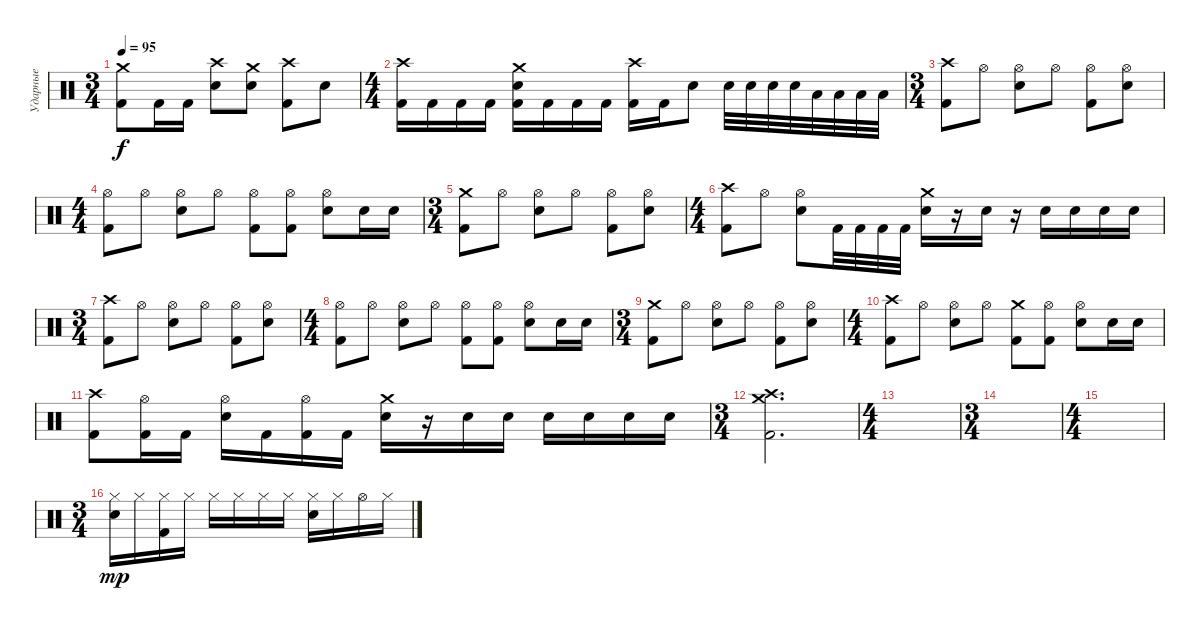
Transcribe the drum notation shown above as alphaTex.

\track ("Ударные" "Ударные") {instrument percussion}
\staff {score}
\articulation defaults
\ts (3 4)
\tempo 95
\clef neutral
\ks c
("Crash medium (hit)" "Kick (hit) 2").8{dy f} "Kick (hit) 2".16 "Kick (hit) 2".16 ("Crash high (hit)" "Snare (hit) 2").8 ("Crash medium (hit)" "Snare (hit) 2").8 ("Crash high (hit)" "Kick (hit) 2").8 "Snare (hit) 2".8 |
\ts (4 4)
("Crash high (hit)" "Kick (hit) 2").16 "Kick (hit) 2".16 "Kick (hit) 2".16 "Kick (hit) 2".16 ("Crash medium (hit)" "Snare (hit) 2" "Kick (hit) 2").16 "Kick (hit) 2".16 "Kick (hit) 2".16 "Kick (hit) 2".16 ("Crash high (hit)" "Kick (hit) 2").16 "Kick (hit) 2".16 "Snare (hit) 2".8 "Snare (hit) 2".32 "Snare (hit) 2".32 "Snare (hit) 2".32 "Snare (hit) 2".32 "Low Tom (hit)".32 "Low Tom (hit)".32 "Low Tom (hit)".32 "Low Tom (hit)".32 |
\ts (3 4)
("Crash high (hit)" "Kick (hit) 2").8 "Hi-Hat (open)".8 ("Hi-Hat (open)" "Snare (hit) 2").8 "Hi-Hat (open)".8 ("Hi-Hat (open)" "Kick (hit) 2").8 ("Hi-Hat (open)" "Snare (hit) 2").8 |
\ts (4 4)
("Hi-Hat (open)" "Kick (hit) 2").8 "Hi-Hat (open)".8 ("Hi-Hat (open)" "Snare (hit) 2").8 "Hi-Hat (open)".8 ("Hi-Hat (open)" "Kick (hit) 2").8 ("Hi-Hat (open)" "Kick (hit) 2").8 ("Hi-Hat (open)" "Snare (hit) 2").8 "Snare (hit) 2".16 "Snare (hit) 2".16 |
\ts (3 4)
("Crash medium (hit)" "Kick (hit) 2").8 "Hi-Hat (open)".8 ("Hi-Hat (open)" "Snare (hit) 2").8 "Hi-Hat (open)".8 ("Hi-Hat (open)" "Kick (hit) 2").8 ("Hi-Hat (open)" "Snare (hit) 2").8 |
\ts (4 4)
("Crash high (hit)" "Kick (hit) 2").8 "Hi-Hat (open)".8 ("Hi-Hat (open)" "Snare (hit) 2").8 "Kick (hit) 2".32 "Kick (hit) 2".32 "Kick (hit) 2".32 "Kick (hit) 2".32 ("Crash medium (hit)" "Snare (hit) 2").16 r.16 "Snare (hit) 2".16 r.16 "Snare (hit) 2".16 "Snare (hit) 2".16 "Snare (hit) 2".16 "Snare (hit) 2".16 |
\ts (3 4)
("Crash high (hit)" "Kick (hit) 2").8 "Hi-Hat (open)".8 ("Hi-Hat (open)" "Snare (hit) 2").8 "Hi-Hat (open)".8 ("Hi-Hat (open)" "Kick (hit) 2").8 ("Hi-Hat (open)" "Snare (hit) 2").8 |
\ts (4 4)
("Hi-Hat (open)" "Kick (hit) 2").8 "Hi-Hat (open)".8 ("Hi-Hat (open)" "Snare (hit) 2").8 "Hi-Hat (open)".8 ("Hi-Hat (open)" "Kick (hit) 2").8 ("Hi-Hat (open)" "Kick (hit) 2").8 ("Hi-Hat (open)" "Snare (hit) 2").8 "Snare (hit) 2".16 "Snare (hit) 2".16 |
\ts (3 4)
("Crash medium (hit)" "Kick (hit) 2").8 "Hi-Hat (open)".8 ("Hi-Hat (open)" "Snare (hit) 2").8 "Hi-Hat (open)".8 ("Hi-Hat (open)" "Kick (hit) 2").8 ("Hi-Hat (open)" "Snare (hit) 2").8 |
\ts (4 4)
("Crash high (hit)" "Kick (hit) 2").8 "Hi-Hat (open)".8 ("Hi-Hat (open)" "Snare (hit) 2").8 "Hi-Hat (open)".8 ("Crash medium (hit)" "Kick (hit) 2").8 ("Hi-Hat (open)" "Kick (hit) 2").8 ("Hi-Hat (open)" "Snare (hit) 2").8 "Snare (hit) 2".16 "Snare (hit) 2".16 |
("Crash high (hit)" "Kick (hit) 2").8 ("Hi-Hat (open)" "Kick (hit) 2").16 "Kick (hit) 2".16 ("Hi-Hat (open)" "Snare (hit) 2").16 "Kick (hit) 2".16 ("Hi-Hat (open)" "Kick (hit) 2").16 "Kick (hit) 2".16 ("Crash medium (hit)" "Snare (hit) 2").16 r.16 "Snare (hit) 2".16 "Snare (hit) 2".16 "Snare (hit) 2".16 "Snare (hit) 2".16 "Snare (hit) 2".16 "Snare (hit) 2".16 |
\ts (3 4)
("Crash high (hit)" "Crash medium (hit)" "Kick (hit) 2").2{d} |
\ts (4 4)
|
\ts (3 4)
|
\ts (4 4)
|
\ts (3 4)
("Hi-Hat (closed)" "Electric Snare (hit)").16{dy mp volume 9} "Hi-Hat (closed)".16 ("Hi-Hat (closed)" "Kick (hit) 2").16 "Hi-Hat (closed)".16 "Hi-Hat (closed)".16 "Hi-Hat (closed)".16 "Hi-Hat (closed)".16 "Hi-Hat (closed)".16 ("Hi-Hat (closed)" "Electric Snare (hit)").16{volume 9} "Hi-Hat (closed)".16 "Hi-Hat (open)".16 "Hi-Hat (closed)".16
